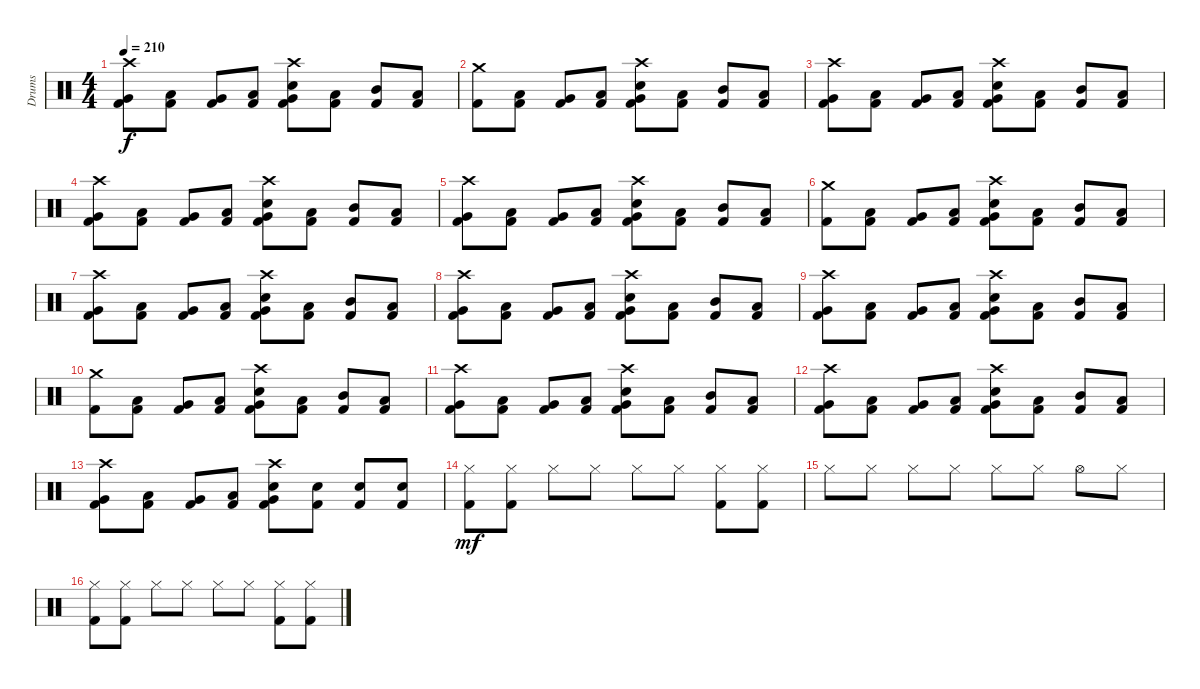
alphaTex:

\track ("Drums" "Drums") {instrument percussion}
\staff {score}
\articulation defaults
\ts (4 4)
\tempo 210
\clef neutral
\ks c
("Crash high (hit)" "Very Low Tom (hit)" "Kick (hit) 2").8{dy f} ("Low Tom (hit)" "Kick (hit) 2").8 ("Very Low Tom (hit)" "Kick (hit) 2").8 ("Low Floor Tom (hit)" "Kick (hit) 2").8 ("Crash high (hit)" "Very Low Tom (hit)" "Electric Snare (hit)" "Kick (hit) 2").8 ("Low Tom (hit)" "Kick (hit) 2").8 ("Mid Tom (hit)" "Kick (hit) 2").8 ("Low Tom (hit)" "Kick (hit) 2").8 |
("Crash medium (hit)" "Kick (hit) 2").8 ("Low Tom (hit)" "Kick (hit) 2").8 ("Very Low Tom (hit)" "Kick (hit) 2").8 ("Low Floor Tom (hit)" "Kick (hit) 2").8 ("Crash high (hit)" "Very Low Tom (hit)" "Electric Snare (hit)" "Kick (hit) 2").8 ("Low Tom (hit)" "Kick (hit) 2").8 ("Mid Tom (hit)" "Kick (hit) 2").8 ("Low Tom (hit)" "Kick (hit) 2").8 |
("Crash high (hit)" "Very Low Tom (hit)" "Kick (hit) 2").8 ("Low Tom (hit)" "Kick (hit) 2").8 ("Very Low Tom (hit)" "Kick (hit) 2").8 ("Low Floor Tom (hit)" "Kick (hit) 2").8 ("Crash high (hit)" "Very Low Tom (hit)" "Electric Snare (hit)" "Kick (hit) 2").8 ("Low Tom (hit)" "Kick (hit) 2").8 ("Mid Tom (hit)" "Kick (hit) 2").8 ("Low Tom (hit)" "Kick (hit) 2").8 |
("Crash high (hit)" "Very Low Tom (hit)" "Kick (hit) 2").8 ("Low Tom (hit)" "Kick (hit) 2").8 ("Very Low Tom (hit)" "Kick (hit) 2").8 ("Low Floor Tom (hit)" "Kick (hit) 2").8 ("Crash high (hit)" "Very Low Tom (hit)" "Electric Snare (hit)" "Kick (hit) 2").8 ("Low Tom (hit)" "Kick (hit) 2").8 ("Mid Tom (hit)" "Kick (hit) 2").8 ("Low Tom (hit)" "Kick (hit) 2").8 |
("Crash high (hit)" "Very Low Tom (hit)" "Kick (hit) 2").8 ("Low Tom (hit)" "Kick (hit) 2").8 ("Very Low Tom (hit)" "Kick (hit) 2").8 ("Low Floor Tom (hit)" "Kick (hit) 2").8 ("Crash high (hit)" "Very Low Tom (hit)" "Electric Snare (hit)" "Kick (hit) 2").8 ("Low Tom (hit)" "Kick (hit) 2").8 ("Mid Tom (hit)" "Kick (hit) 2").8 ("Low Tom (hit)" "Kick (hit) 2").8 |
("Crash medium (hit)" "Kick (hit) 2").8 ("Low Tom (hit)" "Kick (hit) 2").8 ("Very Low Tom (hit)" "Kick (hit) 2").8 ("Low Floor Tom (hit)" "Kick (hit) 2").8 ("Crash high (hit)" "Very Low Tom (hit)" "Electric Snare (hit)" "Kick (hit) 2").8 ("Low Tom (hit)" "Kick (hit) 2").8 ("Mid Tom (hit)" "Kick (hit) 2").8 ("Low Tom (hit)" "Kick (hit) 2").8 |
("Crash high (hit)" "Very Low Tom (hit)" "Kick (hit) 2").8 ("Low Tom (hit)" "Kick (hit) 2").8 ("Very Low Tom (hit)" "Kick (hit) 2").8 ("Low Floor Tom (hit)" "Kick (hit) 2").8 ("Crash high (hit)" "Very Low Tom (hit)" "Electric Snare (hit)" "Kick (hit) 2").8 ("Low Tom (hit)" "Kick (hit) 2").8 ("Mid Tom (hit)" "Kick (hit) 2").8 ("Low Tom (hit)" "Kick (hit) 2").8 |
("Crash high (hit)" "Very Low Tom (hit)" "Kick (hit) 2").8 ("Low Tom (hit)" "Kick (hit) 2").8 ("Very Low Tom (hit)" "Kick (hit) 2").8 ("Low Floor Tom (hit)" "Kick (hit) 2").8 ("Crash high (hit)" "Very Low Tom (hit)" "Electric Snare (hit)" "Kick (hit) 2").8 ("Low Tom (hit)" "Kick (hit) 2").8 ("Mid Tom (hit)" "Kick (hit) 2").8 ("Low Tom (hit)" "Kick (hit) 2").8 |
("Crash high (hit)" "Very Low Tom (hit)" "Kick (hit) 2").8 ("Low Tom (hit)" "Kick (hit) 2").8 ("Very Low Tom (hit)" "Kick (hit) 2").8 ("Low Floor Tom (hit)" "Kick (hit) 2").8 ("Crash high (hit)" "Very Low Tom (hit)" "Electric Snare (hit)" "Kick (hit) 2").8 ("Low Tom (hit)" "Kick (hit) 2").8 ("Mid Tom (hit)" "Kick (hit) 2").8 ("Low Tom (hit)" "Kick (hit) 2").8 |
("Crash medium (hit)" "Kick (hit) 2").8 ("Low Tom (hit)" "Kick (hit) 2").8 ("Very Low Tom (hit)" "Kick (hit) 2").8 ("Low Floor Tom (hit)" "Kick (hit) 2").8 ("Crash high (hit)" "Very Low Tom (hit)" "Electric Snare (hit)" "Kick (hit) 2").8 ("Low Tom (hit)" "Kick (hit) 2").8 ("Mid Tom (hit)" "Kick (hit) 2").8 ("Low Tom (hit)" "Kick (hit) 2").8 |
("Crash high (hit)" "Very Low Tom (hit)" "Kick (hit) 2").8 ("Low Tom (hit)" "Kick (hit) 2").8 ("Very Low Tom (hit)" "Kick (hit) 2").8 ("Low Floor Tom (hit)" "Kick (hit) 2").8 ("Crash high (hit)" "Very Low Tom (hit)" "Electric Snare (hit)" "Kick (hit) 2").8 ("Low Tom (hit)" "Kick (hit) 2").8 ("Mid Tom (hit)" "Kick (hit) 2").8 ("Low Tom (hit)" "Kick (hit) 2").8 |
("Crash high (hit)" "Very Low Tom (hit)" "Kick (hit) 2").8 ("Low Tom (hit)" "Kick (hit) 2").8 ("Very Low Tom (hit)" "Kick (hit) 2").8 ("Low Floor Tom (hit)" "Kick (hit) 2").8 ("Crash high (hit)" "Very Low Tom (hit)" "Electric Snare (hit)" "Kick (hit) 2").8 ("Low Tom (hit)" "Kick (hit) 2").8 ("Mid Tom (hit)" "Kick (hit) 2").8 ("Low Tom (hit)" "Kick (hit) 2").8 |
("Crash high (hit)" "Very Low Tom (hit)" "Kick (hit) 2").8 ("Low Tom (hit)" "Kick (hit) 2").8 ("Very Low Tom (hit)" "Kick (hit) 2").8 ("Low Floor Tom (hit)" "Kick (hit) 2").8 ("Crash high (hit)" "Very Low Tom (hit)" "Electric Snare (hit)" "Kick (hit) 2").8 ("Electric Snare (hit)" "Kick (hit) 2").8 ("Electric Snare (hit)" "Kick (hit) 2").8 ("Electric Snare (hit)" "Kick (hit) 2").8 |
("Hi-Hat (closed)" "Kick (hit) 2").8{dy mf} ("Hi-Hat (closed)" "Kick (hit) 2").8 "Hi-Hat (closed)".8 "Hi-Hat (closed)".8 "Hi-Hat (closed)".8 "Hi-Hat (closed)".8 ("Hi-Hat (closed)" "Kick (hit) 2").8 ("Hi-Hat (closed)" "Kick (hit) 2").8 |
"Hi-Hat (closed)".8 "Hi-Hat (closed)".8 "Hi-Hat (closed)".8 "Hi-Hat (closed)".8 "Hi-Hat (closed)".8 "Hi-Hat (closed)".8 "Hi-Hat (open)".8 "Hi-Hat (closed)".8 |
("Hi-Hat (closed)" "Kick (hit) 2").8 ("Hi-Hat (closed)" "Kick (hit) 2").8 "Hi-Hat (closed)".8 "Hi-Hat (closed)".8 "Hi-Hat (closed)".8 "Hi-Hat (closed)".8 ("Hi-Hat (closed)" "Kick (hit) 2").8 ("Hi-Hat (closed)" "Kick (hit) 2").8
